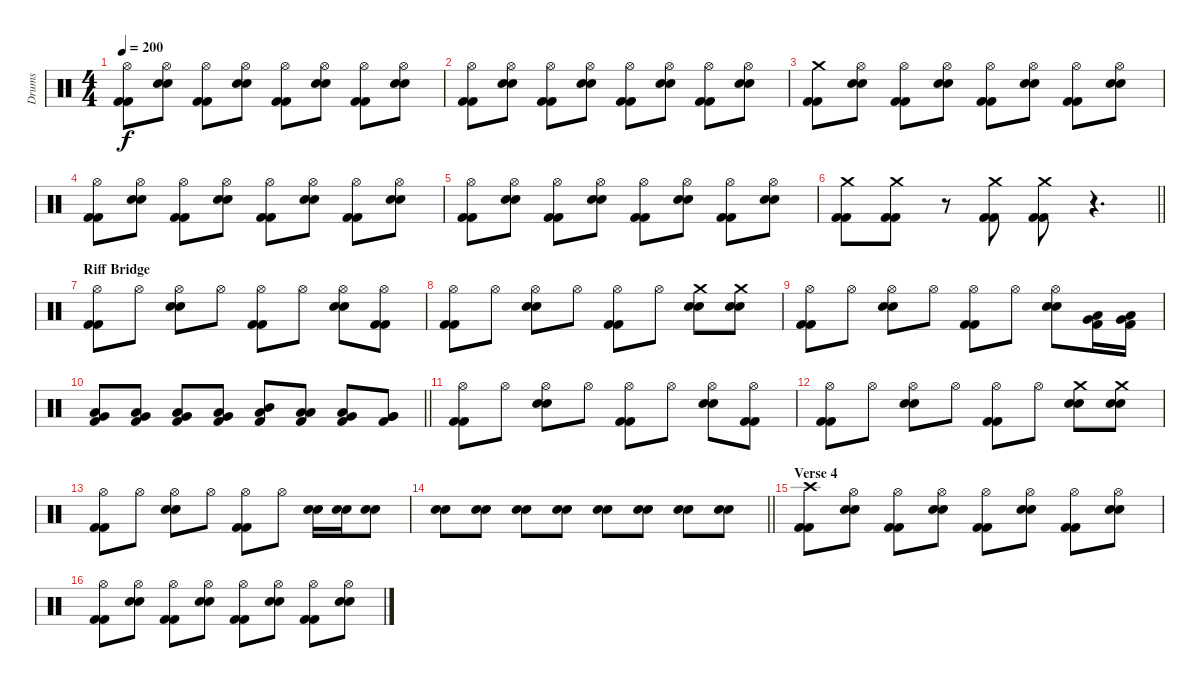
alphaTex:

\track ("Drums" "Drums") {instrument percussion}
\staff {score}
\articulation defaults
\ts (4 4)
\tempo 200
\clef neutral
\ks c
("Hi-Hat (open)" "Kick (hit) 2" "Kick (hit) 2").8{dy f} ("Hi-Hat (open)" "Snare (hit) 2" "Snare (hit) 2").8 ("Hi-Hat (open)" "Kick (hit) 2" "Kick (hit) 2").8 ("Hi-Hat (open)" "Snare (hit) 2" "Snare (hit) 2").8 ("Hi-Hat (open)" "Kick (hit) 2" "Kick (hit) 2").8 ("Hi-Hat (open)" "Snare (hit) 2" "Snare (hit) 2").8 ("Hi-Hat (open)" "Kick (hit) 2" "Kick (hit) 2").8 ("Hi-Hat (open)" "Snare (hit) 2" "Snare (hit) 2").8 |
("Hi-Hat (open)" "Kick (hit) 2" "Kick (hit) 2").8 ("Hi-Hat (open)" "Snare (hit) 2" "Snare (hit) 2").8 ("Hi-Hat (open)" "Kick (hit) 2" "Kick (hit) 2").8 ("Hi-Hat (open)" "Snare (hit) 2" "Snare (hit) 2").8 ("Hi-Hat (open)" "Kick (hit) 2" "Kick (hit) 2").8 ("Hi-Hat (open)" "Snare (hit) 2" "Snare (hit) 2").8 ("Hi-Hat (open)" "Kick (hit) 2" "Kick (hit) 2").8 ("Hi-Hat (open)" "Snare (hit) 2" "Snare (hit) 2").8 |
("Crash medium (hit)" "Kick (hit) 2" "Kick (hit) 2").8 ("Hi-Hat (open)" "Snare (hit) 2" "Snare (hit) 2").8 ("Hi-Hat (open)" "Kick (hit) 2" "Kick (hit) 2").8 ("Hi-Hat (open)" "Snare (hit) 2" "Snare (hit) 2").8 ("Hi-Hat (open)" "Kick (hit) 2" "Kick (hit) 2").8 ("Hi-Hat (open)" "Snare (hit) 2" "Snare (hit) 2").8 ("Hi-Hat (open)" "Kick (hit) 2" "Kick (hit) 2").8 ("Hi-Hat (open)" "Snare (hit) 2" "Snare (hit) 2").8 |
("Hi-Hat (open)" "Kick (hit) 2" "Kick (hit) 2").8 ("Hi-Hat (open)" "Snare (hit) 2" "Snare (hit) 2").8 ("Hi-Hat (open)" "Kick (hit) 2" "Kick (hit) 2").8 ("Hi-Hat (open)" "Snare (hit) 2" "Snare (hit) 2").8 ("Hi-Hat (open)" "Kick (hit) 2" "Kick (hit) 2").8 ("Hi-Hat (open)" "Snare (hit) 2" "Snare (hit) 2").8 ("Hi-Hat (open)" "Kick (hit) 2" "Kick (hit) 2").8 ("Hi-Hat (open)" "Snare (hit) 2" "Snare (hit) 2").8 |
("Hi-Hat (open)" "Kick (hit) 2" "Kick (hit) 2").8 ("Hi-Hat (open)" "Snare (hit) 2" "Snare (hit) 2").8 ("Hi-Hat (open)" "Kick (hit) 2" "Kick (hit) 2").8 ("Hi-Hat (open)" "Snare (hit) 2" "Snare (hit) 2").8 ("Hi-Hat (open)" "Kick (hit) 2" "Kick (hit) 2").8 ("Hi-Hat (open)" "Snare (hit) 2" "Snare (hit) 2").8 ("Hi-Hat (open)" "Kick (hit) 2" "Kick (hit) 2").8 ("Hi-Hat (open)" "Snare (hit) 2" "Snare (hit) 2").8 |
\barLineRight lightlight
("Crash medium (hit)" "Kick (hit) 2" "Kick (hit) 2").8 ("Crash medium (hit)" "Kick (hit) 2" "Kick (hit) 2").8 r.8 ("Crash medium (hit)" "Kick (hit) 2" "Kick (hit) 2").8 ("Crash medium (hit)" "Kick (hit) 2" "Kick (hit) 2").8 r.4{d} |
\section ("" "Riff Bridge")
("Hi-Hat (open)" "Kick (hit) 2" "Kick (hit) 2").8 "Hi-Hat (open)".8 ("Hi-Hat (open)" "Snare (hit) 2" "Snare (hit) 2").8 "Hi-Hat (open)".8 ("Hi-Hat (open)" "Kick (hit) 2" "Kick (hit) 2").8 "Hi-Hat (open)".8 ("Hi-Hat (open)" "Snare (hit) 2" "Snare (hit) 2").8 ("Hi-Hat (open)" "Kick (hit) 2" "Kick (hit) 2").8 |
("Hi-Hat (open)" "Kick (hit) 2" "Kick (hit) 2").8 "Hi-Hat (open)".8 ("Hi-Hat (open)" "Snare (hit) 2" "Snare (hit) 2").8 "Hi-Hat (open)".8 ("Hi-Hat (open)" "Kick (hit) 2" "Kick (hit) 2").8 "Hi-Hat (open)".8 ("Crash medium (hit)" "Snare (hit) 2" "Snare (hit) 2").8 ("Crash medium (hit)" "Snare (hit) 2" "Snare (hit) 2").8 |
("Hi-Hat (open)" "Kick (hit) 2" "Kick (hit) 2").8 "Hi-Hat (open)".8 ("Hi-Hat (open)" "Snare (hit) 2" "Snare (hit) 2").8 "Hi-Hat (open)".8 ("Hi-Hat (open)" "Kick (hit) 2" "Kick (hit) 2").8 "Hi-Hat (open)".8 ("Hi-Hat (open)" "Snare (hit) 2" "Snare (hit) 2").8 ("Low Tom (hit)" "Very Low Tom (hit)" "Kick (hit) 2").16 ("Low Tom (hit)" "Very Low Tom (hit)" "Kick (hit) 2").16 |
\barLineRight lightlight
("Low Tom (hit)" "Very Low Tom (hit)" "Kick (hit) 2").8 ("Low Tom (hit)" "Very Low Tom (hit)" "Kick (hit) 2").8 ("Low Tom (hit)" "Very Low Tom (hit)" "Kick (hit) 2").8 ("Low Tom (hit)" "Very Low Tom (hit)" "Kick (hit) 2").8 ("Mid Tom (hit)" "Low Tom (hit)" "Kick (hit) 2").8 ("Low Tom (hit)" "Low Tom (hit)" "Kick (hit) 2").8 ("Very Low Tom (hit)" "Low Tom (hit)" "Kick (hit) 2").8 ("Very Low Tom (hit)" "Very Low Tom (hit)" "Kick (hit) 2").8 |
("Hi-Hat (open)" "Kick (hit) 2" "Kick (hit) 2").8 "Hi-Hat (open)".8 ("Hi-Hat (open)" "Snare (hit) 2" "Snare (hit) 2").8 "Hi-Hat (open)".8 ("Hi-Hat (open)" "Kick (hit) 2" "Kick (hit) 2").8 "Hi-Hat (open)".8 ("Hi-Hat (open)" "Snare (hit) 2" "Snare (hit) 2").8 ("Hi-Hat (open)" "Kick (hit) 2" "Kick (hit) 2").8 |
("Hi-Hat (open)" "Kick (hit) 2" "Kick (hit) 2").8 "Hi-Hat (open)".8 ("Hi-Hat (open)" "Snare (hit) 2" "Snare (hit) 2").8 "Hi-Hat (open)".8 ("Hi-Hat (open)" "Kick (hit) 2" "Kick (hit) 2").8 "Hi-Hat (open)".8 ("Crash medium (hit)" "Snare (hit) 2" "Snare (hit) 2").8 ("Crash medium (hit)" "Snare (hit) 2" "Snare (hit) 2").8 |
("Hi-Hat (open)" "Kick (hit) 2" "Kick (hit) 2").8 "Hi-Hat (open)".8 ("Hi-Hat (open)" "Snare (hit) 2" "Snare (hit) 2").8 "Hi-Hat (open)".8 ("Hi-Hat (open)" "Kick (hit) 2" "Kick (hit) 2").8 "Hi-Hat (open)".8 ("Snare (hit) 2" "Snare (hit) 2").16 ("Snare (hit) 2" "Snare (hit) 2").16 ("Snare (hit) 2" "Snare (hit) 2").8 |
\barLineRight lightlight
("Snare (hit) 2" "Snare (hit) 2").8 ("Snare (hit) 2" "Snare (hit) 2").8 ("Snare (hit) 2" "Snare (hit) 2").8 ("Snare (hit) 2" "Snare (hit) 2").8 ("Snare (hit) 2" "Snare (hit) 2").8 ("Snare (hit) 2" "Snare (hit) 2").8 ("Snare (hit) 2" "Snare (hit) 2").8 ("Snare (hit) 2" "Snare (hit) 2").8 |
\section ("" "Verse 4")
("Crash high (hit)" "Kick (hit) 2" "Kick (hit) 2").8 ("Hi-Hat (open)" "Snare (hit) 2" "Snare (hit) 2").8 ("Hi-Hat (open)" "Kick (hit) 2" "Kick (hit) 2").8 ("Hi-Hat (open)" "Snare (hit) 2" "Snare (hit) 2").8 ("Hi-Hat (open)" "Kick (hit) 2" "Kick (hit) 2").8 ("Hi-Hat (open)" "Snare (hit) 2" "Snare (hit) 2").8 ("Hi-Hat (open)" "Kick (hit) 2" "Kick (hit) 2").8 ("Hi-Hat (open)" "Snare (hit) 2" "Snare (hit) 2").8 |
("Hi-Hat (open)" "Kick (hit) 2" "Kick (hit) 2").8 ("Hi-Hat (open)" "Snare (hit) 2" "Snare (hit) 2").8 ("Hi-Hat (open)" "Kick (hit) 2" "Kick (hit) 2").8 ("Hi-Hat (open)" "Snare (hit) 2" "Snare (hit) 2").8 ("Hi-Hat (open)" "Kick (hit) 2" "Kick (hit) 2").8 ("Hi-Hat (open)" "Snare (hit) 2" "Snare (hit) 2").8 ("Hi-Hat (open)" "Kick (hit) 2" "Kick (hit) 2").8 ("Hi-Hat (open)" "Snare (hit) 2" "Snare (hit) 2").8
